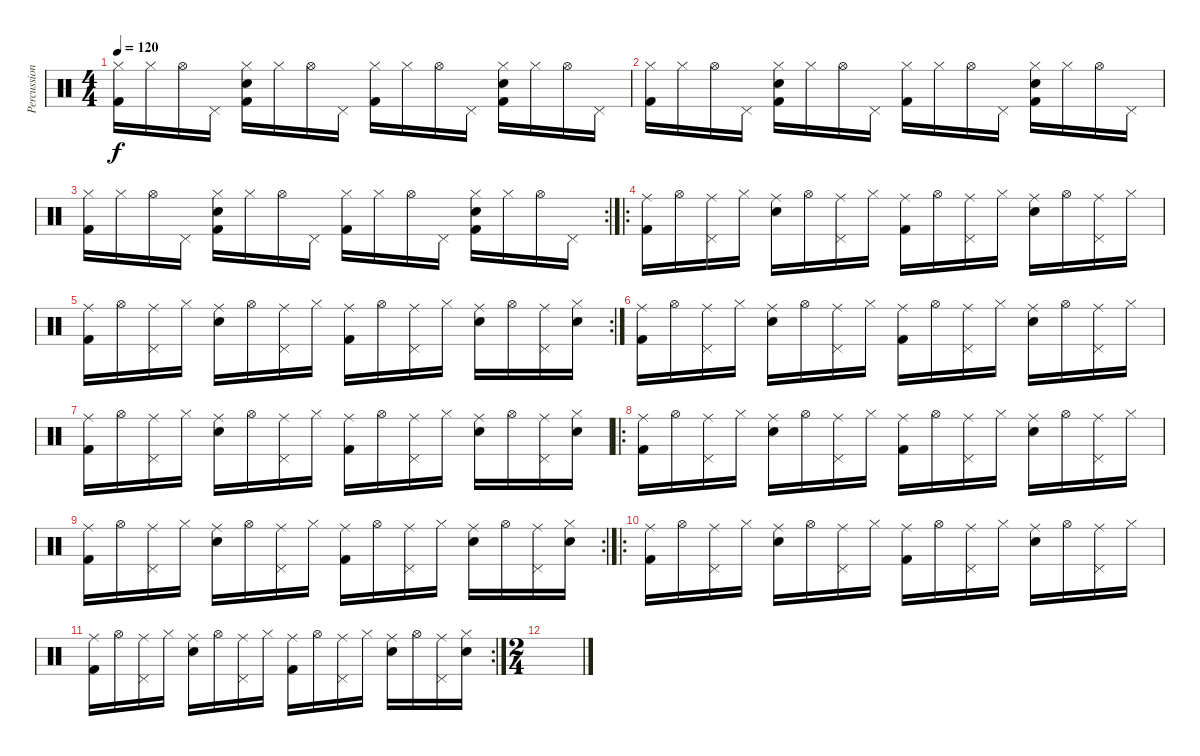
\track ("Percussion" "Percussion") {instrument percussion}
\staff {score}
\articulation defaults
\ts (4 4)
\tempo 120
\clef neutral
\ks c
("Hi-Hat (closed)" "Kick (hit) 2").16{dy f} "Hi-Hat (closed)".16 "Hi-Hat (open)".16 "Pedal Hi-Hat (hit)".16 ("Hi-Hat (closed)" "Snare (hit) 2" "Kick (hit) 2").16 "Hi-Hat (closed)".16 "Hi-Hat (open)".16 "Pedal Hi-Hat (hit)".16 ("Hi-Hat (closed)" "Kick (hit) 2").16 "Hi-Hat (closed)".16 "Hi-Hat (open)".16 "Pedal Hi-Hat (hit)".16 ("Hi-Hat (closed)" "Snare (hit) 2" "Kick (hit) 2").16 "Hi-Hat (closed)".16 "Hi-Hat (open)".16 "Pedal Hi-Hat (hit)".16 |
("Hi-Hat (closed)" "Kick (hit) 2").16 "Hi-Hat (closed)".16 "Hi-Hat (open)".16 "Pedal Hi-Hat (hit)".16 ("Hi-Hat (closed)" "Snare (hit) 2" "Kick (hit) 2").16 "Hi-Hat (closed)".16 "Hi-Hat (open)".16 "Pedal Hi-Hat (hit)".16 ("Hi-Hat (closed)" "Kick (hit) 2").16 "Hi-Hat (closed)".16 "Hi-Hat (open)".16 "Pedal Hi-Hat (hit)".16 ("Hi-Hat (closed)" "Snare (hit) 2" "Kick (hit) 2").16 "Hi-Hat (closed)".16 "Hi-Hat (open)".16 "Pedal Hi-Hat (hit)".16 |
\rc 2
("Hi-Hat (closed)" "Kick (hit) 2").16 "Hi-Hat (closed)".16 "Hi-Hat (open)".16 "Pedal Hi-Hat (hit)".16 ("Hi-Hat (closed)" "Snare (hit) 2" "Kick (hit) 2").16 "Hi-Hat (closed)".16 "Hi-Hat (open)".16 "Pedal Hi-Hat (hit)".16 ("Hi-Hat (closed)" "Kick (hit) 2").16 "Hi-Hat (closed)".16 "Hi-Hat (open)".16 "Pedal Hi-Hat (hit)".16 ("Hi-Hat (closed)" "Snare (hit) 2" "Kick (hit) 2").16 "Hi-Hat (closed)".16 "Hi-Hat (open)".16 "Pedal Hi-Hat (hit)".16 |
\ro
("Ride (middle)" "Kick (hit) 2").16 "Hi-Hat (open)".16 ("Ride (middle)" "Pedal Hi-Hat (hit)").16 "Hi-Hat (closed)".16 ("Ride (middle)" "Snare (hit) 2").16 "Hi-Hat (open)".16 ("Ride (middle)" "Pedal Hi-Hat (hit)").16 "Hi-Hat (closed)".16 ("Ride (middle)" "Kick (hit) 2").16 "Hi-Hat (open)".16 ("Ride (middle)" "Pedal Hi-Hat (hit)").16 "Hi-Hat (closed)".16 ("Ride (middle)" "Snare (hit) 2").16 "Hi-Hat (open)".16 ("Ride (middle)" "Pedal Hi-Hat (hit)").16 "Hi-Hat (closed)".16 |
\rc 2
("Ride (middle)" "Kick (hit) 2").16 "Hi-Hat (open)".16 ("Ride (middle)" "Pedal Hi-Hat (hit)").16 "Hi-Hat (closed)".16 ("Ride (middle)" "Snare (hit) 2").16 "Hi-Hat (open)".16 ("Ride (middle)" "Pedal Hi-Hat (hit)").16 "Hi-Hat (closed)".16 ("Ride (middle)" "Kick (hit) 2").16 "Hi-Hat (open)".16 ("Ride (middle)" "Pedal Hi-Hat (hit)").16 "Hi-Hat (closed)".16 ("Ride (middle)" "Snare (hit) 2").16 "Hi-Hat (open)".16 ("Ride (middle)" "Pedal Hi-Hat (hit)").16 ("Hi-Hat (closed)" "Snare (hit) 2").16 |
("Ride (middle)" "Kick (hit) 2").16 "Hi-Hat (open)".16 ("Ride (middle)" "Pedal Hi-Hat (hit)").16 "Hi-Hat (closed)".16 ("Ride (middle)" "Snare (hit) 2").16 "Hi-Hat (open)".16 ("Ride (middle)" "Pedal Hi-Hat (hit)").16 "Hi-Hat (closed)".16 ("Ride (middle)" "Kick (hit) 2").16 "Hi-Hat (open)".16 ("Ride (middle)" "Pedal Hi-Hat (hit)").16 "Hi-Hat (closed)".16 ("Ride (middle)" "Snare (hit) 2").16 "Hi-Hat (open)".16 ("Ride (middle)" "Pedal Hi-Hat (hit)").16 "Hi-Hat (closed)".16 |
("Ride (middle)" "Kick (hit) 2").16 "Hi-Hat (open)".16 ("Ride (middle)" "Pedal Hi-Hat (hit)").16 "Hi-Hat (closed)".16 ("Ride (middle)" "Snare (hit) 2").16 "Hi-Hat (open)".16 ("Ride (middle)" "Pedal Hi-Hat (hit)").16 "Hi-Hat (closed)".16 ("Ride (middle)" "Kick (hit) 2").16 "Hi-Hat (open)".16 ("Ride (middle)" "Pedal Hi-Hat (hit)").16 "Hi-Hat (closed)".16 ("Ride (middle)" "Snare (hit) 2").16 "Hi-Hat (open)".16 ("Ride (middle)" "Pedal Hi-Hat (hit)").16 ("Hi-Hat (closed)" "Snare (hit) 2").16 |
\ro
("Ride (middle)" "Kick (hit) 2").16 "Hi-Hat (open)".16 ("Ride (middle)" "Pedal Hi-Hat (hit)").16 "Hi-Hat (closed)".16 ("Ride (middle)" "Snare (hit) 2").16 "Hi-Hat (open)".16 ("Ride (middle)" "Pedal Hi-Hat (hit)").16 "Hi-Hat (closed)".16 ("Ride (middle)" "Kick (hit) 2").16 "Hi-Hat (open)".16 ("Ride (middle)" "Pedal Hi-Hat (hit)").16 "Hi-Hat (closed)".16 ("Ride (middle)" "Snare (hit) 2").16 "Hi-Hat (open)".16 ("Ride (middle)" "Pedal Hi-Hat (hit)").16 "Hi-Hat (closed)".16 |
\rc 2
("Ride (middle)" "Kick (hit) 2").16 "Hi-Hat (open)".16 ("Ride (middle)" "Pedal Hi-Hat (hit)").16 "Hi-Hat (closed)".16 ("Ride (middle)" "Snare (hit) 2").16 "Hi-Hat (open)".16 ("Ride (middle)" "Pedal Hi-Hat (hit)").16 "Hi-Hat (closed)".16 ("Ride (middle)" "Kick (hit) 2").16 "Hi-Hat (open)".16 ("Ride (middle)" "Pedal Hi-Hat (hit)").16 "Hi-Hat (closed)".16 ("Ride (middle)" "Snare (hit) 2").16 "Hi-Hat (open)".16 ("Ride (middle)" "Pedal Hi-Hat (hit)").16 ("Hi-Hat (closed)" "Snare (hit) 2").16 |
\ro
("Ride (middle)" "Kick (hit) 2").16 "Hi-Hat (open)".16 ("Ride (middle)" "Pedal Hi-Hat (hit)").16 "Hi-Hat (closed)".16 ("Ride (middle)" "Snare (hit) 2").16 "Hi-Hat (open)".16 ("Ride (middle)" "Pedal Hi-Hat (hit)").16 "Hi-Hat (closed)".16 ("Ride (middle)" "Kick (hit) 2").16 "Hi-Hat (open)".16 ("Ride (middle)" "Pedal Hi-Hat (hit)").16 "Hi-Hat (closed)".16 ("Ride (middle)" "Snare (hit) 2").16 "Hi-Hat (open)".16 ("Ride (middle)" "Pedal Hi-Hat (hit)").16 "Hi-Hat (closed)".16 |
\rc 2
("Ride (middle)" "Kick (hit) 2").16 "Hi-Hat (open)".16 ("Ride (middle)" "Pedal Hi-Hat (hit)").16 "Hi-Hat (closed)".16 ("Ride (middle)" "Snare (hit) 2").16 "Hi-Hat (open)".16 ("Ride (middle)" "Pedal Hi-Hat (hit)").16 "Hi-Hat (closed)".16 ("Ride (middle)" "Kick (hit) 2").16 "Hi-Hat (open)".16 ("Ride (middle)" "Pedal Hi-Hat (hit)").16 "Hi-Hat (closed)".16 ("Ride (middle)" "Snare (hit) 2").16 "Hi-Hat (open)".16 ("Ride (middle)" "Pedal Hi-Hat (hit)").16 ("Hi-Hat (closed)" "Snare (hit) 2").16 |
\ts (2 4)
